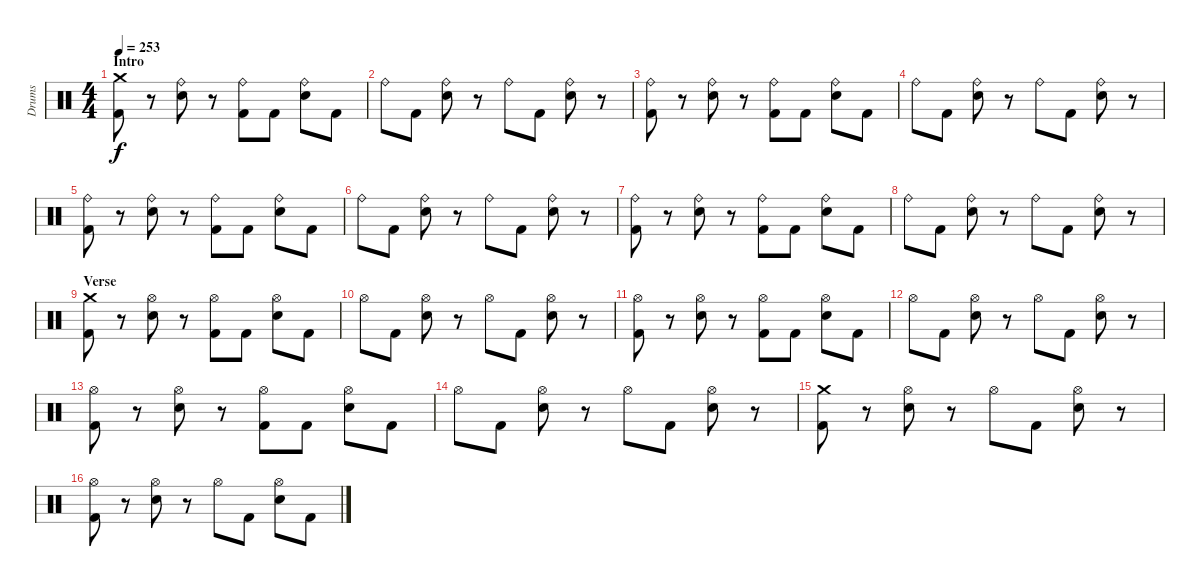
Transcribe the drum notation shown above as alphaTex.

\track ("Drums" "Drums") {instrument percussion}
\staff {score}
\articulation defaults
\ts (4 4)
\section ("" "Intro")
\tempo 253
\clef neutral
\ks c
("Crash medium (hit)" "Kick (hit) 2").8{dy f} r.8 ("Ride (bell)" "Electric Snare (hit)").8 r.8 ("Ride (bell)" "Kick (hit) 2").8 "Kick (hit) 2".8 ("Ride (bell)" "Electric Snare (hit)").8 "Kick (hit) 2".8 |
"Ride (bell)".8 "Kick (hit) 2".8 ("Ride (bell)" "Electric Snare (hit)").8 r.8 "Ride (bell)".8 "Kick (hit) 2".8 ("Ride (bell)" "Electric Snare (hit)").8 r.8 |
("Ride (bell)" "Kick (hit) 2").8 r.8 ("Ride (bell)" "Electric Snare (hit)").8 r.8 ("Ride (bell)" "Kick (hit) 2").8 "Kick (hit) 2".8 ("Ride (bell)" "Electric Snare (hit)").8 "Kick (hit) 2".8 |
"Ride (bell)".8 "Kick (hit) 2".8 ("Ride (bell)" "Electric Snare (hit)").8 r.8 "Ride (bell)".8 "Kick (hit) 2".8 ("Ride (bell)" "Electric Snare (hit)").8 r.8 |
("Ride (bell)" "Kick (hit) 2").8 r.8 ("Ride (bell)" "Electric Snare (hit)").8 r.8 ("Ride (bell)" "Kick (hit) 2").8 "Kick (hit) 2".8 ("Ride (bell)" "Electric Snare (hit)").8 "Kick (hit) 2".8 |
"Ride (bell)".8 "Kick (hit) 2".8 ("Ride (bell)" "Electric Snare (hit)").8 r.8 "Ride (bell)".8 "Kick (hit) 2".8 ("Ride (bell)" "Electric Snare (hit)").8 r.8 |
("Ride (bell)" "Kick (hit) 2").8 r.8 ("Ride (bell)" "Electric Snare (hit)").8 r.8 ("Ride (bell)" "Kick (hit) 2").8 "Kick (hit) 2".8 ("Ride (bell)" "Electric Snare (hit)").8 "Kick (hit) 2".8 |
"Ride (bell)".8 "Kick (hit) 2".8 ("Ride (bell)" "Electric Snare (hit)").8 r.8 "Ride (bell)".8 "Kick (hit) 2".8 ("Ride (bell)" "Electric Snare (hit)").8 r.8 |
\section ("" "Verse")
("Crash medium (hit)" "Kick (hit) 2").8 r.8 ("Hi-Hat (open)" "Electric Snare (hit)").8 r.8 ("Hi-Hat (open)" "Kick (hit) 2").8 "Kick (hit) 2".8 ("Hi-Hat (open)" "Electric Snare (hit)").8 "Kick (hit) 2".8 |
"Hi-Hat (open)".8 "Kick (hit) 2".8 ("Hi-Hat (open)" "Electric Snare (hit)").8 r.8 "Hi-Hat (open)".8 "Kick (hit) 2".8 ("Hi-Hat (open)" "Electric Snare (hit)").8 r.8 |
("Hi-Hat (open)" "Kick (hit) 2").8 r.8 ("Hi-Hat (open)" "Electric Snare (hit)").8 r.8 ("Hi-Hat (open)" "Kick (hit) 2").8 "Kick (hit) 2".8 ("Hi-Hat (open)" "Electric Snare (hit)").8 "Kick (hit) 2".8 |
"Hi-Hat (open)".8 "Kick (hit) 2".8 ("Hi-Hat (open)" "Electric Snare (hit)").8 r.8 "Hi-Hat (open)".8 "Kick (hit) 2".8 ("Hi-Hat (open)" "Electric Snare (hit)").8 r.8 |
("Hi-Hat (open)" "Kick (hit) 2").8 r.8 ("Hi-Hat (open)" "Electric Snare (hit)").8 r.8 ("Hi-Hat (open)" "Kick (hit) 2").8 "Kick (hit) 2".8 ("Hi-Hat (open)" "Electric Snare (hit)").8 "Kick (hit) 2".8 |
"Hi-Hat (open)".8 "Kick (hit) 2".8 ("Hi-Hat (open)" "Electric Snare (hit)").8 r.8 "Hi-Hat (open)".8 "Kick (hit) 2".8 ("Hi-Hat (open)" "Electric Snare (hit)").8 r.8 |
("Crash medium (hit)" "Kick (hit) 2").8 r.8 ("Hi-Hat (open)" "Electric Snare (hit)").8 r.8 "Hi-Hat (open)".8 "Kick (hit) 2".8 ("Hi-Hat (open)" "Electric Snare (hit)").8 r.8 |
("Hi-Hat (open)" "Kick (hit) 2").8 r.8 ("Hi-Hat (open)" "Electric Snare (hit)").8 r.8 "Hi-Hat (open)".8 "Kick (hit) 2".8 ("Hi-Hat (open)" "Electric Snare (hit)").8 "Kick (hit) 2".8
